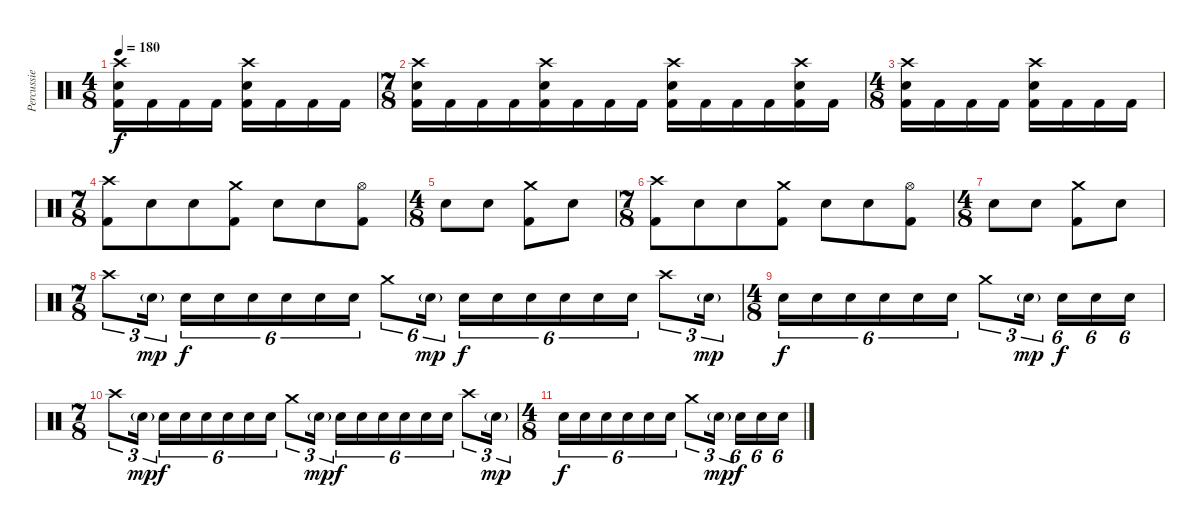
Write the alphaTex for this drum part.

\track ("Percussie" "Percussie") {instrument percussion}
\staff {score}
\articulation defaults
\ts (4 8)
\tempo 180
\clef neutral
\ks c
("Crash high (hit)" "Snare (hit) 2" "Kick (hit) 2").16{dy f} "Kick (hit) 2".16 "Kick (hit) 2".16 "Kick (hit) 2".16 ("Crash high (hit)" "Snare (hit) 2" "Kick (hit) 2").16 "Kick (hit) 2".16 "Kick (hit) 2".16 "Kick (hit) 2".16 |
\ts (7 8)
("Crash high (hit)" "Snare (hit) 2" "Kick (hit) 2").16 "Kick (hit) 2".16 "Kick (hit) 2".16 "Kick (hit) 2".16 ("Crash high (hit)" "Snare (hit) 2" "Kick (hit) 2").16 "Kick (hit) 2".16 "Kick (hit) 2".16 "Kick (hit) 2".16 ("Crash high (hit)" "Snare (hit) 2" "Kick (hit) 2").16 "Kick (hit) 2".16 "Kick (hit) 2".16 "Kick (hit) 2".16 ("Crash high (hit)" "Snare (hit) 2" "Kick (hit) 2").16 "Kick (hit) 2".16 |
\ts (4 8)
("Crash high (hit)" "Snare (hit) 2" "Kick (hit) 2").16 "Kick (hit) 2".16 "Kick (hit) 2".16 "Kick (hit) 2".16 ("Crash high (hit)" "Snare (hit) 2" "Kick (hit) 2").16 "Kick (hit) 2".16 "Kick (hit) 2".16 "Kick (hit) 2".16 |
\ts (7 8)
("Crash high (hit)" "Kick (hit) 2").8 "Snare (hit) 2".8 "Snare (hit) 2".8 ("Crash medium (hit)" "Kick (hit) 2").8 "Snare (hit) 2".8 "Snare (hit) 2".8 ("Hi-Hat (open)" "Kick (hit) 2").8 |
\ts (4 8)
"Snare (hit) 2".8 "Snare (hit) 2".8 ("Crash medium (hit)" "Kick (hit) 2").8 "Snare (hit) 2".8 |
\ts (7 8)
("Crash high (hit)" "Kick (hit) 2").8 "Snare (hit) 2".8 "Snare (hit) 2".8 ("Crash medium (hit)" "Kick (hit) 2").8 "Snare (hit) 2".8 "Snare (hit) 2".8 ("Hi-Hat (open)" "Kick (hit) 2").8 |
\ts (4 8)
"Snare (hit) 2".8 "Snare (hit) 2".8 ("Crash medium (hit)" "Kick (hit) 2").8 "Snare (hit) 2".8 |
\ts (7 8)
"Crash high (hit)".8{tu (3 2)} "Snare (hit) 2"{g}.16{tu (3 2) dy mp} "Snare (hit) 2".16{tu (6 4) dy f} "Snare (hit) 2".16{tu (6 4)} "Snare (hit) 2".16{tu (6 4)} "Snare (hit) 2".16{tu (6 4)} "Snare (hit) 2".16{tu (6 4)} "Snare (hit) 2".16{tu (6 4)} "Crash medium (hit)".8{tu (6 4)} "Snare (hit) 2"{g}.16{tu (6 4) dy mp} "Snare (hit) 2".16{tu (6 4) dy f} "Snare (hit) 2".16{tu (6 4)} "Snare (hit) 2".16{tu (6 4)} "Snare (hit) 2".16{tu (6 4)} "Snare (hit) 2".16{tu (6 4)} "Snare (hit) 2".16{tu (6 4)} "Crash high (hit)".8{tu (3 2)} "Snare (hit) 2"{g}.16{tu (3 2) dy mp} |
\ts (4 8)
"Snare (hit) 2".16{tu (6 4) dy f} "Snare (hit) 2".16{tu (6 4)} "Snare (hit) 2".16{tu (6 4)} "Snare (hit) 2".16{tu (6 4)} "Snare (hit) 2".16{tu (6 4)} "Snare (hit) 2".16{tu (6 4)} "Crash medium (hit)".8{tu (3 2)} "Snare (hit) 2"{g}.16{tu (3 2) dy mp} "Snare (hit) 2".16{tu (6 4) dy f} "Snare (hit) 2".16{tu (6 4)} "Snare (hit) 2".16{tu (6 4)} |
\ts (7 8)
"Crash high (hit)".8{tu (3 2)} "Snare (hit) 2"{g}.16{tu (3 2) dy mp} "Snare (hit) 2".16{tu (6 4) dy f} "Snare (hit) 2".16{tu (6 4)} "Snare (hit) 2".16{tu (6 4)} "Snare (hit) 2".16{tu (6 4)} "Snare (hit) 2".16{tu (6 4)} "Snare (hit) 2".16{tu (6 4)} "Crash medium (hit)".8{tu (3 2)} "Snare (hit) 2"{g}.16{tu (3 2) dy mp} "Snare (hit) 2".16{tu (6 4) dy f} "Snare (hit) 2".16{tu (6 4)} "Snare (hit) 2".16{tu (6 4)} "Snare (hit) 2".16{tu (6 4)} "Snare (hit) 2".16{tu (6 4)} "Snare (hit) 2".16{tu (6 4)} "Crash high (hit)".8{tu (3 2)} "Snare (hit) 2"{g}.16{tu (3 2) dy mp} |
\ts (4 8)
"Snare (hit) 2".16{tu (6 4) dy f} "Snare (hit) 2".16{tu (6 4)} "Snare (hit) 2".16{tu (6 4)} "Snare (hit) 2".16{tu (6 4)} "Snare (hit) 2".16{tu (6 4)} "Snare (hit) 2".16{tu (6 4)} "Crash medium (hit)".8{tu (3 2)} "Snare (hit) 2"{g}.16{tu (3 2) dy mp} "Snare (hit) 2".16{tu (6 4) dy f} "Snare (hit) 2".16{tu (6 4)} "Snare (hit) 2".16{tu (6 4)}
